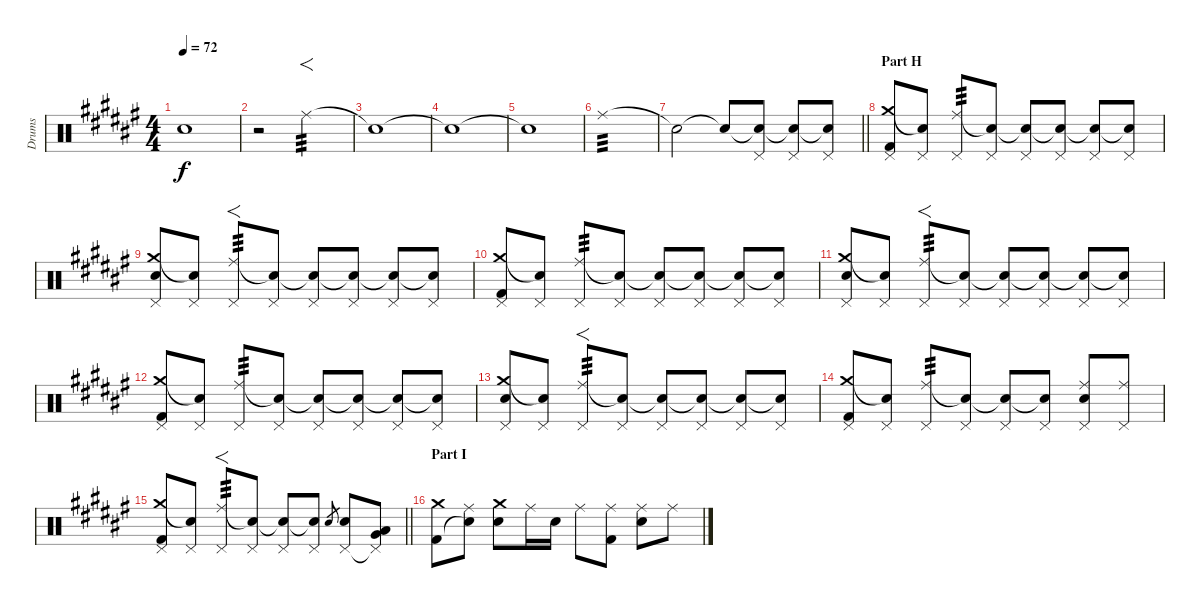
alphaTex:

\track ("Drums" "Drums") {instrument percussion}
\staff {score}
\articulation defaults
\ts (4 4)
\tempo 72
\clef neutral
\ks f# "Snare (hit)"{t}.1{dy f}
|
r.2 "Ride (middle)".2{f tp 3} |
"Snare (hit)"{t}.1 |
"Snare (hit)"{t}.1 |
"Snare (hit)"{t}.1 |
"Ride (middle)".1{tp 3} |
\barLineRight lightlight "Snare (hit)"{t}.2 "Snare (hit)"{t}.8
("Snare (hit)"{t} "Pedal Hi-Hat (hit)").8 ("Snare (hit)"{t} "Pedal Hi-Hat (hit)").8 ("Snare (hit)"{t} "Pedal Hi-Hat (hit)").8 |
\section ("" "Part H")
("Crash medium (hit)" "Pedal Hi-Hat (hit)" "Kick (hit) 2").8 ("Snare (hit)"{t} "Pedal Hi-Hat (hit)").8 ("Ride (middle)" "Pedal Hi-Hat (hit)").8{tp 3} ("Snare (hit)"{t} "Pedal Hi-Hat (hit)").8 ("Snare (hit)"{t} "Pedal Hi-Hat (hit)").8 ("Snare (hit)"{t} "Pedal Hi-Hat (hit)").8 ("Snare (hit)"{t} "Pedal Hi-Hat (hit)").8 ("Snare (hit)"{t} "Pedal Hi-Hat (hit)").8 |
("Crash medium (hit)" "Pedal Hi-Hat (hit)" "Electric Snare (hit)").8 ("Snare (hit)"{t} "Pedal Hi-Hat (hit)").8 ("Ride (middle)" "Pedal Hi-Hat (hit)").8{f tp 3} ("Snare (hit)"{t} "Pedal Hi-Hat (hit)").8 ("Snare (hit)"{t} "Pedal Hi-Hat (hit)").8 ("Snare (hit)"{t} "Pedal Hi-Hat (hit)").8 ("Snare (hit)"{t} "Pedal Hi-Hat (hit)").8 ("Snare (hit)"{t} "Pedal Hi-Hat (hit)").8 |
("Crash medium (hit)" "Pedal Hi-Hat (hit)" "Kick (hit) 2").8 ("Snare (hit)"{t} "Pedal Hi-Hat (hit)").8 ("Ride (middle)" "Pedal Hi-Hat (hit)").8{tp 3} ("Snare (hit)"{t} "Pedal Hi-Hat (hit)").8 ("Snare (hit)"{t} "Pedal Hi-Hat (hit)").8 ("Snare (hit)"{t} "Pedal Hi-Hat (hit)").8 ("Snare (hit)"{t} "Pedal Hi-Hat (hit)").8 ("Snare (hit)"{t} "Pedal Hi-Hat (hit)").8 |
("Crash medium (hit)" "Pedal Hi-Hat (hit)" "Electric Snare (hit)").8 ("Snare (hit)"{t} "Pedal Hi-Hat (hit)").8 ("Ride (middle)" "Pedal Hi-Hat (hit)").8{f tp 3} ("Snare (hit)"{t} "Pedal Hi-Hat (hit)").8 ("Snare (hit)"{t} "Pedal Hi-Hat (hit)").8 ("Snare (hit)"{t} "Pedal Hi-Hat (hit)").8 ("Snare (hit)"{t} "Pedal Hi-Hat (hit)").8 ("Snare (hit)"{t} "Pedal Hi-Hat (hit)").8 |
("Crash medium (hit)" "Pedal Hi-Hat (hit)" "Kick (hit) 2").8 ("Snare (hit)"{t} "Pedal Hi-Hat (hit)").8 ("Ride (middle)" "Pedal Hi-Hat (hit)").8{tp 3} ("Snare (hit)"{t} "Pedal Hi-Hat (hit)").8 ("Snare (hit)"{t} "Pedal Hi-Hat (hit)").8 ("Snare (hit)"{t} "Pedal Hi-Hat (hit)").8 ("Snare (hit)"{t} "Pedal Hi-Hat (hit)").8 ("Snare (hit)"{t} "Pedal Hi-Hat (hit)").8 |
("Crash medium (hit)" "Pedal Hi-Hat (hit)" "Electric Snare (hit)").8 ("Snare (hit)"{t} "Pedal Hi-Hat (hit)").8 ("Ride (middle)" "Pedal Hi-Hat (hit)").8{f tp 3} ("Snare (hit)"{t} "Pedal Hi-Hat (hit)").8 ("Snare (hit)"{t} "Pedal Hi-Hat (hit)").8 ("Snare (hit)"{t} "Pedal Hi-Hat (hit)").8 ("Snare (hit)"{t} "Pedal Hi-Hat (hit)").8 ("Snare (hit)"{t} "Pedal Hi-Hat (hit)").8 |
("Crash medium (hit)" "Pedal Hi-Hat (hit)" "Kick (hit) 2").8 ("Snare (hit)"{t} "Pedal Hi-Hat (hit)").8 ("Ride (middle)" "Pedal Hi-Hat (hit)").8{tp 3} ("Snare (hit)"{t} "Pedal Hi-Hat (hit)").8 ("Snare (hit)"{t} "Pedal Hi-Hat (hit)").8 ("Snare (hit)"{t} "Pedal Hi-Hat (hit)").8 ("Ride (middle)" "Pedal Hi-Hat (hit)" "Electric Snare (hit)").8 ("Ride (middle)" "Pedal Hi-Hat (hit)").8 |
\barLineRight lightlight
("Crash medium (hit)" "Pedal Hi-Hat (hit)" "Kick (hit) 2").8 ("Snare (hit)"{t} "Pedal Hi-Hat (hit)").8 ("Ride (middle)" "Pedal Hi-Hat (hit)").8{f tp 3} ("Snare (hit)"{t} "Pedal Hi-Hat (hit)").8 ("Snare (hit)"{t} "Pedal Hi-Hat (hit)").8 ("Snare (hit)"{t} "Pedal Hi-Hat (hit)").8 "Electric Snare (hit)".8{gr} ("Pedal Hi-Hat (hit)" "Electric Snare (hit)").8 ("Pedal Hi-Hat (hit)"{t} "Very Low Tom (hit)" "Low Floor Tom (hit)").8 |
\section ("" "Part I")
("Crash medium (hit)" "Kick (hit) 2").8 ("Ride (middle)" "Snare (hit)"{t}).8 ("Crash medium (hit)" "Electric Snare (hit)").8 "Ride (middle)".16 "Electric Snare (hit)".16 "Ride (middle)".8 ("Ride (middle)" "Kick (hit) 2").8 ("Ride (middle)" "Electric Snare (hit)").8 "Ride (middle)".8
